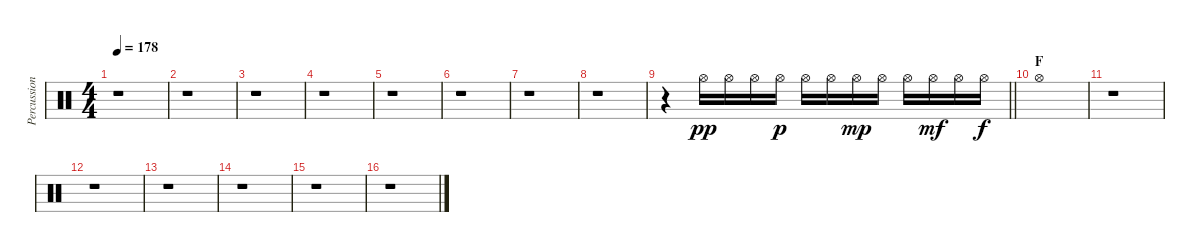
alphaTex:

\track ("Percussion" "Percussion") {instrument percussion}
\staff {score}
\articulation defaults
\ts (4 4)
\tempo 178
\clef neutral
\ks c
r.1{dy f} |
r.1 |
r.1 |
r.1 |
r.1 |
r.1 |
r.1 |
r.1 |
\barLineRight lightlight
r.4 "Hi-Hat (open)".16{dy pp} "Hi-Hat (open)".16 "Hi-Hat (open)".16 "Hi-Hat (open)".16{dy p} "Hi-Hat (open)".16 "Hi-Hat (open)".16 "Hi-Hat (open)".16{dy mp} "Hi-Hat (open)".16 "Hi-Hat (open)".16 "Hi-Hat (open)".16{dy mf} "Hi-Hat (open)".16 "Hi-Hat (open)".16{dy f} |
\section ("" "F")
"Hi-Hat (open)".1 |
r.1 |
r.1 |
r.1 |
r.1 |
r.1 |
r.1
